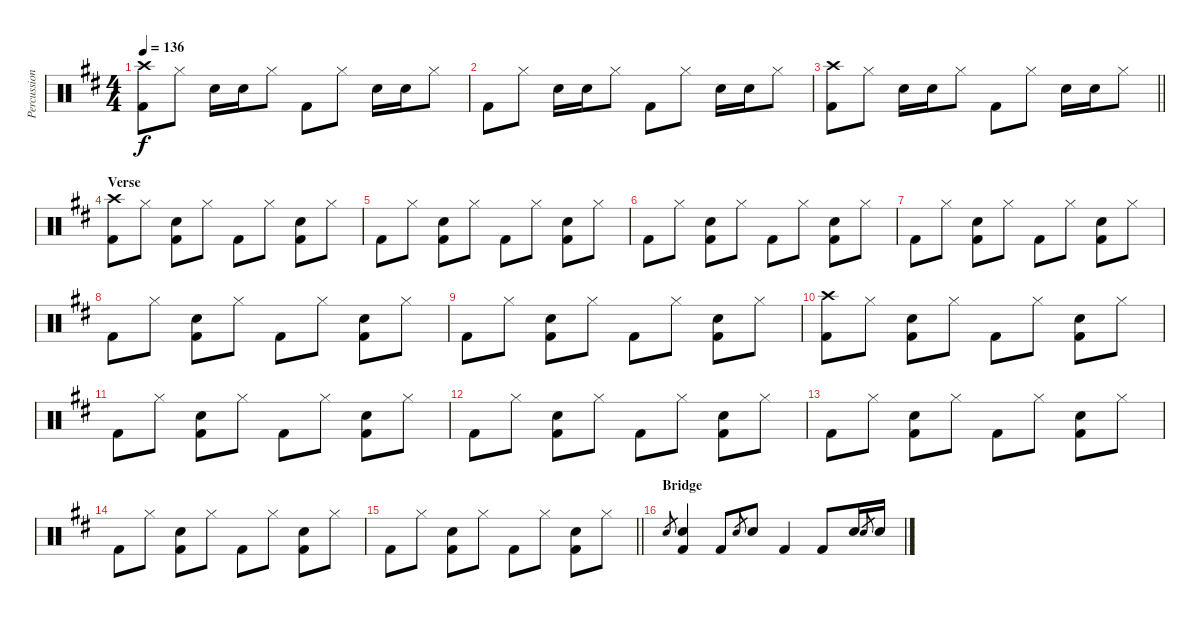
\track ("Percussion" "Percussion") {instrument percussion}
\staff {score}
\articulation defaults
\ts (4 4)
\tempo 136
\clef neutral
\ks d
("Crash high (hit)" "Kick (hit) 2").8{dy f} "Hi-Hat (closed)".8 "Electric Snare (hit)".16 "Electric Snare (hit)".16 "Hi-Hat (closed)".8 "Kick (hit) 2".8 "Hi-Hat (closed)".8 "Electric Snare (hit)".16 "Electric Snare (hit)".16 "Hi-Hat (closed)".8 |
"Kick (hit) 2".8 "Hi-Hat (closed)".8 "Electric Snare (hit)".16 "Electric Snare (hit)".16 "Hi-Hat (closed)".8 "Kick (hit) 2".8 "Hi-Hat (closed)".8 "Electric Snare (hit)".16 "Electric Snare (hit)".16 "Hi-Hat (closed)".8 |
\barLineRight lightlight
("Crash high (hit)" "Kick (hit) 2").8 "Hi-Hat (closed)".8 "Electric Snare (hit)".16 "Electric Snare (hit)".16 "Hi-Hat (closed)".8 "Kick (hit) 2".8 "Hi-Hat (closed)".8 "Electric Snare (hit)".16 "Electric Snare (hit)".16 "Hi-Hat (closed)".8 |
\section ("" "Verse")
("Crash high (hit)" "Kick (hit) 2").8 "Hi-Hat (closed)".8 ("Electric Snare (hit)" "Kick (hit) 2").8 "Hi-Hat (closed)".8 "Kick (hit) 2".8 "Hi-Hat (closed)".8 ("Electric Snare (hit)" "Kick (hit) 2").8 "Hi-Hat (closed)".8 |
"Kick (hit) 2".8 "Hi-Hat (closed)".8 ("Electric Snare (hit)" "Kick (hit) 2").8 "Hi-Hat (closed)".8 "Kick (hit) 2".8 "Hi-Hat (closed)".8 ("Electric Snare (hit)" "Kick (hit) 2").8 "Hi-Hat (closed)".8 |
"Kick (hit) 2".8 "Hi-Hat (closed)".8 ("Electric Snare (hit)" "Kick (hit) 2").8 "Hi-Hat (closed)".8 "Kick (hit) 2".8 "Hi-Hat (closed)".8 ("Electric Snare (hit)" "Kick (hit) 2").8 "Hi-Hat (closed)".8 |
"Kick (hit) 2".8 "Hi-Hat (closed)".8 ("Electric Snare (hit)" "Kick (hit) 2").8 "Hi-Hat (closed)".8 "Kick (hit) 2".8 "Hi-Hat (closed)".8 ("Electric Snare (hit)" "Kick (hit) 2").8 "Hi-Hat (closed)".8 |
"Kick (hit) 2".8 "Hi-Hat (closed)".8 ("Electric Snare (hit)" "Kick (hit) 2").8 "Hi-Hat (closed)".8 "Kick (hit) 2".8 "Hi-Hat (closed)".8 ("Electric Snare (hit)" "Kick (hit) 2").8 "Hi-Hat (closed)".8 |
"Kick (hit) 2".8 "Hi-Hat (closed)".8 ("Electric Snare (hit)" "Kick (hit) 2").8 "Hi-Hat (closed)".8 "Kick (hit) 2".8 "Hi-Hat (closed)".8 ("Electric Snare (hit)" "Kick (hit) 2").8 "Hi-Hat (closed)".8 |
("Crash high (hit)" "Kick (hit) 2").8 "Hi-Hat (closed)".8 ("Electric Snare (hit)" "Kick (hit) 2").8 "Hi-Hat (closed)".8 "Kick (hit) 2".8 "Hi-Hat (closed)".8 ("Electric Snare (hit)" "Kick (hit) 2").8 "Hi-Hat (closed)".8 |
"Kick (hit) 2".8 "Hi-Hat (closed)".8 ("Electric Snare (hit)" "Kick (hit) 2").8 "Hi-Hat (closed)".8 "Kick (hit) 2".8 "Hi-Hat (closed)".8 ("Electric Snare (hit)" "Kick (hit) 2").8 "Hi-Hat (closed)".8 |
"Kick (hit) 2".8 "Hi-Hat (closed)".8 ("Electric Snare (hit)" "Kick (hit) 2").8 "Hi-Hat (closed)".8 "Kick (hit) 2".8 "Hi-Hat (closed)".8 ("Electric Snare (hit)" "Kick (hit) 2").8 "Hi-Hat (closed)".8 |
"Kick (hit) 2".8 "Hi-Hat (closed)".8 ("Electric Snare (hit)" "Kick (hit) 2").8 "Hi-Hat (closed)".8 "Kick (hit) 2".8 "Hi-Hat (closed)".8 ("Electric Snare (hit)" "Kick (hit) 2").8 "Hi-Hat (closed)".8 |
"Kick (hit) 2".8 "Hi-Hat (closed)".8 ("Electric Snare (hit)" "Kick (hit) 2").8 "Hi-Hat (closed)".8 "Kick (hit) 2".8 "Hi-Hat (closed)".8 ("Electric Snare (hit)" "Kick (hit) 2").8 "Hi-Hat (closed)".8 |
\barLineRight lightlight "Kick (hit) 2".8 "Hi-Hat (closed)".8
("Electric Snare (hit)" "Kick (hit) 2").8 "Hi-Hat (closed)".8 "Kick (hit) 2".8 "Hi-Hat (closed)".8 ("Electric Snare (hit)" "Kick (hit) 2").8 "Hi-Hat (closed)".8 |
\section ("" "Bridge")
"Electric Snare (hit)".8{gr} ("Electric Snare (hit)" "Kick (hit) 2").4 "Kick (hit) 2".8 "Electric Snare (hit)".8{gr} "Electric Snare (hit)".8 "Kick (hit) 2".4 "Kick (hit) 2".8 "Electric Snare (hit)".16 "Electric Snare (hit)".8{gr} "Electric Snare (hit)".16
